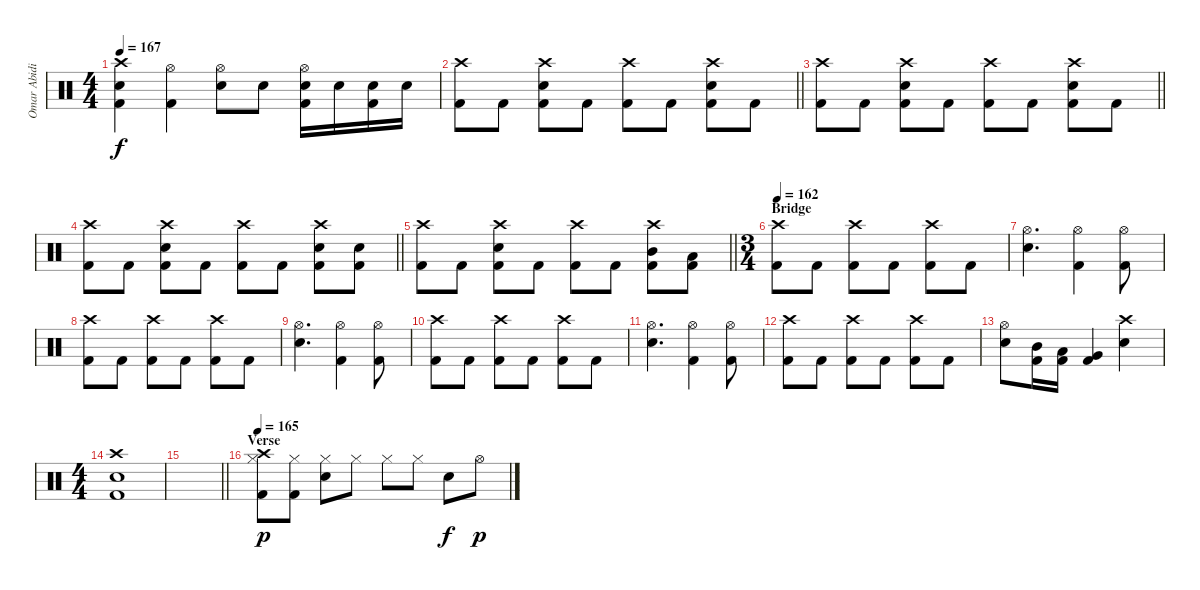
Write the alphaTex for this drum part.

\track ("Omar Abidi" "Omar Abidi") {instrument percussion}
\staff {score}
\articulation defaults
\ts (4 4)
\tempo 167
\clef neutral
\ks c
("Crash high (hit)" "Electric Snare (hit)" "Kick (hit) 2").4{dy f} ("Hi-Hat (open)" "Kick (hit) 2").4 ("Hi-Hat (open)" "Electric Snare (hit)").8 "Electric Snare (hit)".8 ("Hi-Hat (open)" "Electric Snare (hit)" "Kick (hit) 2").16 "Electric Snare (hit)".16 ("Electric Snare (hit)" "Kick (hit) 2").16 "Electric Snare (hit)".16 |
\barLineRight lightlight
("Crash high (hit)" "Kick (hit) 2").8 "Kick (hit) 2".8 ("Crash high (hit)" "Electric Snare (hit)" "Kick (hit) 2").8 "Kick (hit) 2".8 ("Crash high (hit)" "Kick (hit) 2").8 "Kick (hit) 2".8 ("Crash high (hit)" "Electric Snare (hit)" "Kick (hit) 2").8 "Kick (hit) 2".8 |
\barLineRight lightlight
("Crash high (hit)" "Kick (hit) 2").8 "Kick (hit) 2".8 ("Crash high (hit)" "Electric Snare (hit)" "Kick (hit) 2").8 "Kick (hit) 2".8 ("Crash high (hit)" "Kick (hit) 2").8 "Kick (hit) 2".8 ("Crash high (hit)" "Electric Snare (hit)" "Kick (hit) 2").8 "Kick (hit) 2".8 |
\barLineRight lightlight
("Crash high (hit)" "Kick (hit) 2").8 "Kick (hit) 2".8 ("Crash high (hit)" "Electric Snare (hit)" "Kick (hit) 2").8 "Kick (hit) 2".8 ("Crash high (hit)" "Kick (hit) 2").8 "Kick (hit) 2".8 ("Crash high (hit)" "Electric Snare (hit)" "Kick (hit) 2").8 ("Electric Snare (hit)" "Kick (hit) 2").8 |
\barLineRight lightlight
("Crash high (hit)" "Kick (hit) 2").8 "Kick (hit) 2".8 ("Crash high (hit)" "Electric Snare (hit)" "Kick (hit) 2").8 "Kick (hit) 2".8 ("Crash high (hit)" "Kick (hit) 2").8 "Kick (hit) 2".8 ("Crash high (hit)" "Mid Tom (hit)" "Kick (hit) 2").8 ("Low Tom (hit)" "Kick (hit) 2").8 |
\ts (3 4)
\section ("" "Bridge")
\tempo 162
("Crash high (hit)" "Kick (hit) 2").8 "Kick (hit) 2".8 ("Crash high (hit)" "Kick (hit) 2").8 "Kick (hit) 2".8 ("Crash high (hit)" "Kick (hit) 2").8 "Kick (hit) 2".8 |
("Hi-Hat (open)" "Electric Snare (hit)").4{d} ("Hi-Hat (open)" "Kick (hit) 2").4 ("Hi-Hat (open)" "Kick (hit) 2").8 |
("Crash high (hit)" "Kick (hit) 2").8 "Kick (hit) 2".8 ("Crash high (hit)" "Kick (hit) 2").8 "Kick (hit) 2".8 ("Crash high (hit)" "Kick (hit) 2").8 "Kick (hit) 2".8 |
("Hi-Hat (open)" "Electric Snare (hit)").4{d} ("Hi-Hat (open)" "Kick (hit) 2").4 ("Hi-Hat (open)" "Kick (hit) 2").8 |
("Crash high (hit)" "Kick (hit) 2").8 "Kick (hit) 2".8 ("Crash high (hit)" "Kick (hit) 2").8 "Kick (hit) 2".8 ("Crash high (hit)" "Kick (hit) 2").8 "Kick (hit) 2".8 |
("Hi-Hat (open)" "Electric Snare (hit)").4{d} ("Hi-Hat (open)" "Kick (hit) 2").4 ("Hi-Hat (open)" "Kick (hit) 2").8 |
("Crash high (hit)" "Kick (hit) 2").8 "Kick (hit) 2".8 ("Crash high (hit)" "Kick (hit) 2").8 "Kick (hit) 2".8 ("Crash high (hit)" "Kick (hit) 2").8 "Kick (hit) 2".8 |
("Hi-Hat (open)" "Electric Snare (hit)").8 ("Mid Tom (hit)" "Kick (hit) 2").16 ("Low Tom (hit)" "Kick (hit) 2").16 ("Very Low Tom (hit)" "Kick (hit) 2").4 ("Crash high (hit)" "Electric Snare (hit)").4 |
\ts (4 4)
("Crash high (hit)" "Electric Snare (hit)" "Kick (hit) 2").1 |
\barLineRight lightlight
|
\section ("" "Verse")
\tempo 165
("Crash high (hit)" "Hi-Hat (closed)" "Kick (hit) 2").8{dy p} ("Hi-Hat (closed)" "Kick (hit) 2").8 ("Hi-Hat (closed)" "Electric Snare (hit)").8 "Hi-Hat (closed)".8 "Hi-Hat (closed)".8 "Hi-Hat (closed)".8 "Electric Snare (hit)".8{dy f} "Hi-Hat (open)".8{dy p}
